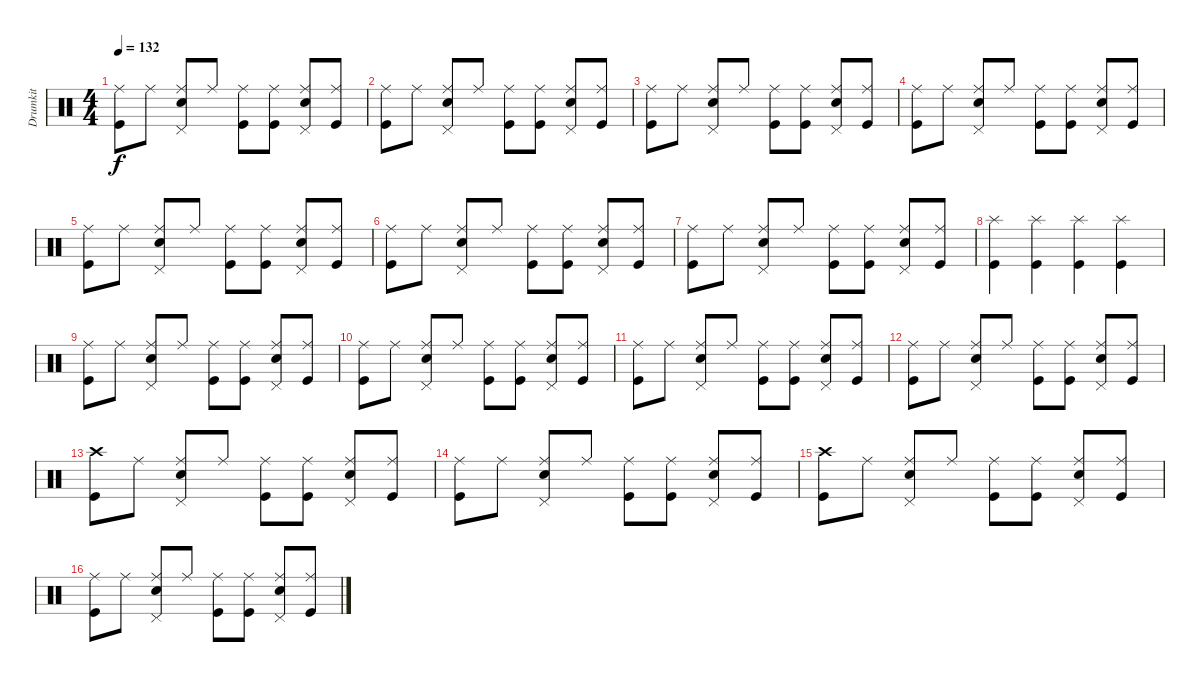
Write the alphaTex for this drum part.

\track ("Drumkit" "Drumkit") {instrument percussion}
\staff {score}
\articulation defaults
\ts (4 4)
\tempo 132
\clef neutral
\ks c
("Kick (hit)" "Ride (middle)").8{dy f} "Ride (middle)".8 ("Snare (hit) 2" "Pedal Hi-Hat (hit)" "Ride (middle)").8 "Ride (middle)".8 ("Kick (hit)" "Ride (middle)").8 ("Kick (hit)" "Ride (middle)").8 ("Snare (hit) 2" "Pedal Hi-Hat (hit)" "Ride (middle)").8 ("Kick (hit)" "Ride (middle)").8 |
("Kick (hit)" "Ride (middle)").8 "Ride (middle)".8 ("Snare (hit) 2" "Pedal Hi-Hat (hit)" "Ride (middle)").8 "Ride (middle)".8 ("Kick (hit)" "Ride (middle)").8 ("Kick (hit)" "Ride (middle)").8 ("Snare (hit) 2" "Pedal Hi-Hat (hit)" "Ride (middle)").8 ("Kick (hit)" "Ride (middle)").8 |
("Kick (hit)" "Ride (middle)").8 "Ride (middle)".8 ("Snare (hit) 2" "Pedal Hi-Hat (hit)" "Ride (middle)").8 "Ride (middle)".8 ("Kick (hit)" "Ride (middle)").8 ("Kick (hit)" "Ride (middle)").8 ("Snare (hit) 2" "Pedal Hi-Hat (hit)" "Ride (middle)").8 ("Kick (hit)" "Ride (middle)").8 |
("Kick (hit)" "Ride (middle)").8 "Ride (middle)".8 ("Snare (hit) 2" "Pedal Hi-Hat (hit)" "Ride (middle)").8 "Ride (middle)".8 ("Kick (hit)" "Ride (middle)").8 ("Kick (hit)" "Ride (middle)").8 ("Snare (hit) 2" "Pedal Hi-Hat (hit)" "Ride (middle)").8 ("Kick (hit)" "Ride (middle)").8 |
("Kick (hit)" "Ride (middle)").8 "Ride (middle)".8 ("Snare (hit) 2" "Pedal Hi-Hat (hit)" "Ride (middle)").8 "Ride (middle)".8 ("Kick (hit)" "Ride (middle)").8 ("Kick (hit)" "Ride (middle)").8 ("Snare (hit) 2" "Pedal Hi-Hat (hit)" "Ride (middle)").8 ("Kick (hit)" "Ride (middle)").8 |
("Kick (hit)" "Ride (middle)").8 "Ride (middle)".8 ("Snare (hit) 2" "Pedal Hi-Hat (hit)" "Ride (middle)").8 "Ride (middle)".8 ("Kick (hit)" "Ride (middle)").8 ("Kick (hit)" "Ride (middle)").8 ("Snare (hit) 2" "Pedal Hi-Hat (hit)" "Ride (middle)").8 ("Kick (hit)" "Ride (middle)").8 |
("Kick (hit)" "Ride (middle)").8 "Ride (middle)".8 ("Snare (hit) 2" "Pedal Hi-Hat (hit)" "Ride (middle)").8 "Ride (middle)".8 ("Kick (hit)" "Ride (middle)").8 ("Kick (hit)" "Ride (middle)").8 ("Snare (hit) 2" "Pedal Hi-Hat (hit)" "Ride (middle)").8 ("Kick (hit)" "Ride (middle)").8 |
("Kick (hit)" "Splash (hit)").4 ("Kick (hit)" "Splash (hit)").4 ("Kick (hit)" "Splash (hit)").4 ("Kick (hit)" "Splash (hit)").4 |
("Kick (hit)" "Ride (middle)").8 "Ride (middle)".8 ("Snare (hit) 2" "Pedal Hi-Hat (hit)" "Ride (middle)").8 "Ride (middle)".8 ("Kick (hit)" "Ride (middle)").8 ("Kick (hit)" "Ride (middle)").8 ("Snare (hit) 2" "Pedal Hi-Hat (hit)" "Ride (middle)").8 ("Kick (hit)" "Ride (middle)").8 |
("Kick (hit)" "Ride (middle)").8 "Ride (middle)".8 ("Snare (hit) 2" "Pedal Hi-Hat (hit)" "Ride (middle)").8 "Ride (middle)".8 ("Kick (hit)" "Ride (middle)").8 ("Kick (hit)" "Ride (middle)").8 ("Snare (hit) 2" "Pedal Hi-Hat (hit)" "Ride (middle)").8 ("Kick (hit)" "Ride (middle)").8 |
("Kick (hit)" "Ride (middle)").8 "Ride (middle)".8 ("Snare (hit) 2" "Pedal Hi-Hat (hit)" "Ride (middle)").8 "Ride (middle)".8 ("Kick (hit)" "Ride (middle)").8 ("Kick (hit)" "Ride (middle)").8 ("Snare (hit) 2" "Pedal Hi-Hat (hit)" "Ride (middle)").8 ("Kick (hit)" "Ride (middle)").8 |
("Kick (hit)" "Ride (middle)").8 "Ride (middle)".8 ("Snare (hit) 2" "Pedal Hi-Hat (hit)" "Ride (middle)").8 "Ride (middle)".8 ("Kick (hit)" "Ride (middle)").8 ("Kick (hit)" "Ride (middle)").8 ("Snare (hit) 2" "Pedal Hi-Hat (hit)" "Ride (middle)").8 ("Kick (hit)" "Ride (middle)").8 |
("Kick (hit)" "Crash high (hit)").8 "Ride (middle)".8 ("Snare (hit) 2" "Pedal Hi-Hat (hit)" "Ride (middle)").8 "Ride (middle)".8 ("Kick (hit)" "Ride (middle)").8 ("Kick (hit)" "Ride (middle)").8 ("Snare (hit) 2" "Pedal Hi-Hat (hit)" "Ride (middle)").8 ("Kick (hit)" "Ride (middle)").8 |
("Kick (hit)" "Ride (middle)").8 "Ride (middle)".8 ("Snare (hit) 2" "Pedal Hi-Hat (hit)" "Ride (middle)").8 "Ride (middle)".8 ("Kick (hit)" "Ride (middle)").8 ("Kick (hit)" "Ride (middle)").8 ("Snare (hit) 2" "Pedal Hi-Hat (hit)" "Ride (middle)").8 ("Kick (hit)" "Ride (middle)").8 |
("Kick (hit)" "Crash high (hit)").8 "Ride (middle)".8 ("Snare (hit) 2" "Pedal Hi-Hat (hit)" "Ride (middle)").8 "Ride (middle)".8 ("Kick (hit)" "Ride (middle)").8 ("Kick (hit)" "Ride (middle)").8 ("Snare (hit) 2" "Pedal Hi-Hat (hit)" "Ride (middle)").8 ("Kick (hit)" "Ride (middle)").8 |
("Kick (hit)" "Ride (middle)").8 "Ride (middle)".8 ("Snare (hit) 2" "Pedal Hi-Hat (hit)" "Ride (middle)").8 "Ride (middle)".8 ("Kick (hit)" "Ride (middle)").8 ("Kick (hit)" "Ride (middle)").8 ("Snare (hit) 2" "Pedal Hi-Hat (hit)" "Ride (middle)").8 ("Kick (hit)" "Ride (middle)").8
